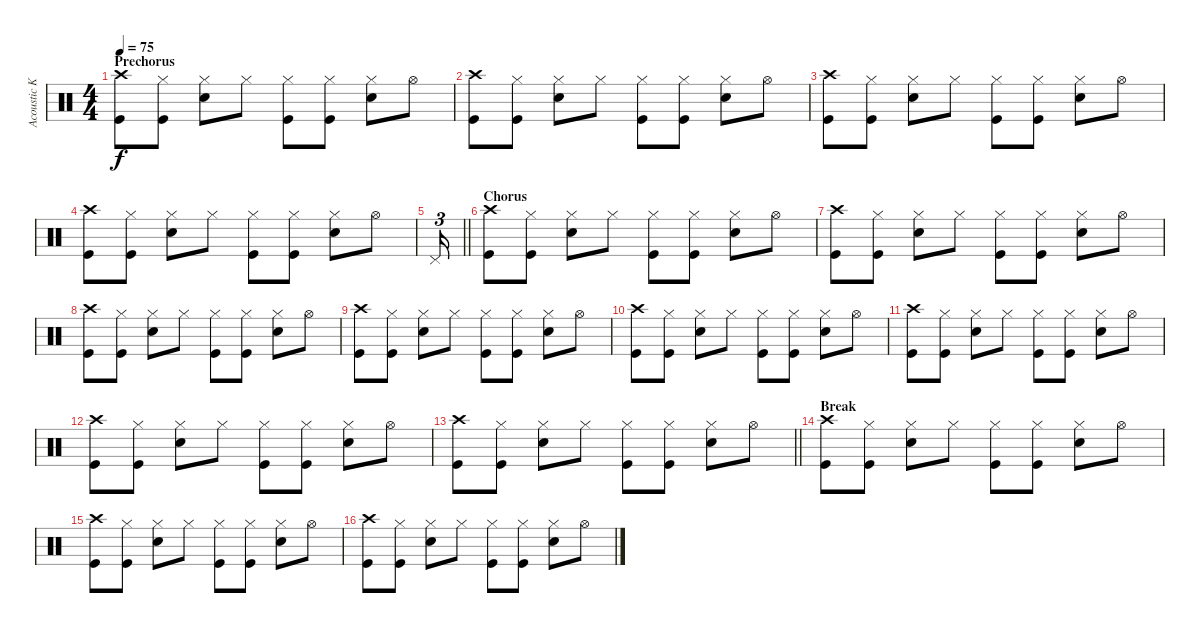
\track ("Acoustic Kit" "Acoustic K") {instrument percussion}
\staff {score}
\articulation defaults
\ts (4 4)
\section ("" "Prechorus")
\tempo 75
\clef neutral
\ks c
("Crash high (hit)" "Kick (hit)").8{dy f} ("Hi-Hat (closed)" "Kick (hit)").8 ("Hi-Hat (closed)" "Snare (hit) 2").8 "Hi-Hat (closed)".8 ("Hi-Hat (closed)" "Kick (hit)").8 ("Hi-Hat (closed)" "Kick (hit)").8 ("Hi-Hat (closed)" "Snare (hit) 2").8 "Hi-Hat (open)".8 |
("Crash high (hit)" "Kick (hit)").8 ("Hi-Hat (closed)" "Kick (hit)").8 ("Hi-Hat (closed)" "Snare (hit) 2").8 "Hi-Hat (closed)".8 ("Hi-Hat (closed)" "Kick (hit)").8 ("Hi-Hat (closed)" "Kick (hit)").8 ("Hi-Hat (closed)" "Snare (hit) 2").8 "Hi-Hat (open)".8 |
("Crash high (hit)" "Kick (hit)").8 ("Hi-Hat (closed)" "Kick (hit)").8 ("Hi-Hat (closed)" "Snare (hit) 2").8 "Hi-Hat (closed)".8 ("Hi-Hat (closed)" "Kick (hit)").8 ("Hi-Hat (closed)" "Kick (hit)").8 ("Hi-Hat (closed)" "Snare (hit) 2").8 "Hi-Hat (open)".8 |
("Crash high (hit)" "Kick (hit)").8 ("Hi-Hat (closed)" "Kick (hit)").8 ("Hi-Hat (closed)" "Snare (hit) 2").8 "Hi-Hat (closed)".8 ("Hi-Hat (closed)" "Kick (hit)").8 ("Hi-Hat (closed)" "Kick (hit)").8 ("Hi-Hat (closed)" "Snare (hit) 2").8 "Hi-Hat (open)".8 |
\barLineRight lightlight "Pedal Hi-Hat (hit)".16{tu (3 2)}
|
\section ("" "Chorus")
("Crash high (hit)" "Kick (hit)").8 ("Hi-Hat (closed)" "Kick (hit)").8 ("Hi-Hat (closed)" "Snare (hit) 2").8 "Hi-Hat (closed)".8 ("Hi-Hat (closed)" "Kick (hit)").8 ("Hi-Hat (closed)" "Kick (hit)").8 ("Hi-Hat (closed)" "Snare (hit) 2").8 "Hi-Hat (open)".8 |
("Crash high (hit)" "Kick (hit)").8 ("Hi-Hat (closed)" "Kick (hit)").8 ("Hi-Hat (closed)" "Snare (hit) 2").8 "Hi-Hat (closed)".8 ("Hi-Hat (closed)" "Kick (hit)").8 ("Hi-Hat (closed)" "Kick (hit)").8 ("Hi-Hat (closed)" "Snare (hit) 2").8 "Hi-Hat (open)".8 |
("Crash high (hit)" "Kick (hit)").8 ("Hi-Hat (closed)" "Kick (hit)").8 ("Hi-Hat (closed)" "Snare (hit) 2").8 "Hi-Hat (closed)".8 ("Hi-Hat (closed)" "Kick (hit)").8 ("Hi-Hat (closed)" "Kick (hit)").8 ("Hi-Hat (closed)" "Snare (hit) 2").8 "Hi-Hat (open)".8 |
("Crash high (hit)" "Kick (hit)").8 ("Hi-Hat (closed)" "Kick (hit)").8 ("Hi-Hat (closed)" "Snare (hit) 2").8 "Hi-Hat (closed)".8 ("Hi-Hat (closed)" "Kick (hit)").8 ("Hi-Hat (closed)" "Kick (hit)").8 ("Hi-Hat (closed)" "Snare (hit) 2").8 "Hi-Hat (open)".8 |
("Crash high (hit)" "Kick (hit)").8 ("Hi-Hat (closed)" "Kick (hit)").8 ("Hi-Hat (closed)" "Snare (hit) 2").8 "Hi-Hat (closed)".8 ("Hi-Hat (closed)" "Kick (hit)").8 ("Hi-Hat (closed)" "Kick (hit)").8 ("Hi-Hat (closed)" "Snare (hit) 2").8 "Hi-Hat (open)".8 |
("Crash high (hit)" "Kick (hit)").8 ("Hi-Hat (closed)" "Kick (hit)").8 ("Hi-Hat (closed)" "Snare (hit) 2").8 "Hi-Hat (closed)".8 ("Hi-Hat (closed)" "Kick (hit)").8 ("Hi-Hat (closed)" "Kick (hit)").8 ("Hi-Hat (closed)" "Snare (hit) 2").8 "Hi-Hat (open)".8 |
("Crash high (hit)" "Kick (hit)").8 ("Hi-Hat (closed)" "Kick (hit)").8 ("Hi-Hat (closed)" "Snare (hit) 2").8 "Hi-Hat (closed)".8 ("Hi-Hat (closed)" "Kick (hit)").8 ("Hi-Hat (closed)" "Kick (hit)").8 ("Hi-Hat (closed)" "Snare (hit) 2").8 "Hi-Hat (open)".8 |
\barLineRight lightlight
("Crash high (hit)" "Kick (hit)").8 ("Hi-Hat (closed)" "Kick (hit)").8 ("Hi-Hat (closed)" "Snare (hit) 2").8 "Hi-Hat (closed)".8 ("Hi-Hat (closed)" "Kick (hit)").8 ("Hi-Hat (closed)" "Kick (hit)").8 ("Hi-Hat (closed)" "Snare (hit) 2").8 "Hi-Hat (open)".8 |
\section ("" "Break")
("Crash high (hit)" "Kick (hit)").8 ("Hi-Hat (closed)" "Kick (hit)").8 ("Hi-Hat (closed)" "Snare (hit) 2").8 "Hi-Hat (closed)".8 ("Hi-Hat (closed)" "Kick (hit)").8 ("Hi-Hat (closed)" "Kick (hit)").8 ("Hi-Hat (closed)" "Snare (hit) 2").8 "Hi-Hat (open)".8 |
("Crash high (hit)" "Kick (hit)").8 ("Hi-Hat (closed)" "Kick (hit)").8 ("Hi-Hat (closed)" "Snare (hit) 2").8 "Hi-Hat (closed)".8 ("Hi-Hat (closed)" "Kick (hit)").8 ("Hi-Hat (closed)" "Kick (hit)").8 ("Hi-Hat (closed)" "Snare (hit) 2").8 "Hi-Hat (open)".8 |
("Crash high (hit)" "Kick (hit)").8 ("Hi-Hat (closed)" "Kick (hit)").8 ("Hi-Hat (closed)" "Snare (hit) 2").8 "Hi-Hat (closed)".8 ("Hi-Hat (closed)" "Kick (hit)").8 ("Hi-Hat (closed)" "Kick (hit)").8 ("Hi-Hat (closed)" "Snare (hit) 2").8 "Hi-Hat (open)".8
